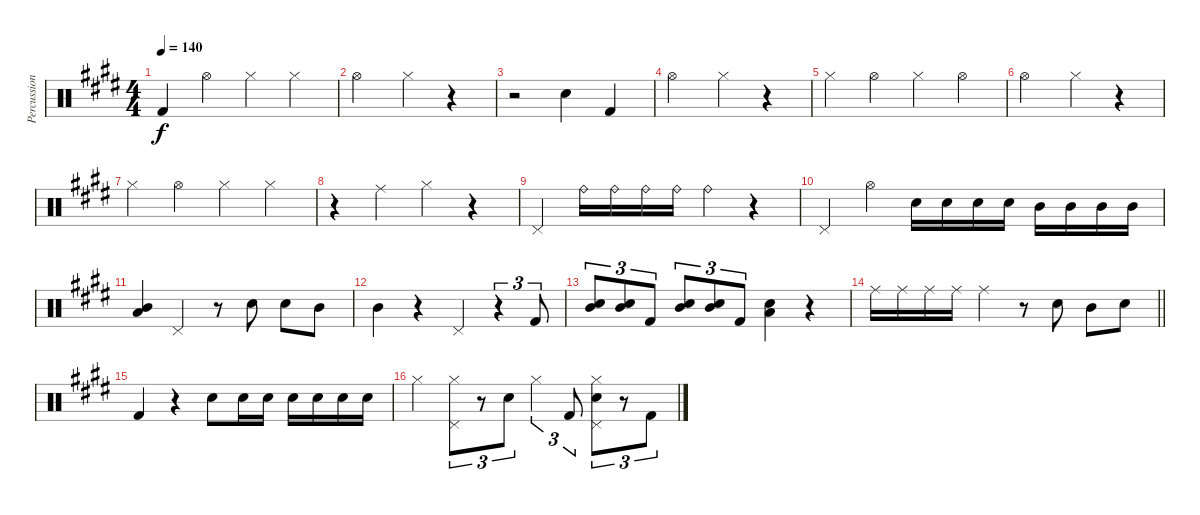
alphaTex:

\track ("Percussion" "Percussion") {instrument percussion}
\staff {score}
\articulation defaults
\ts (4 4)
\tempo 140
\clef neutral
\ks e "Kick (hit) 2".4{dy f} "Hi-Hat (open)".4 "Hi-Hat (closed)".4 "Hi-Hat (closed)".4
|
"Hi-Hat (open)".2 "Hi-Hat (closed)".4 r.4 |
r.2 "Snare (hit) 2".4 "Kick (hit) 2".4 |
"Hi-Hat (open)".2 "Hi-Hat (closed)".4 r.4 |
"Hi-Hat (closed)".4 "Hi-Hat (open)".4 "Hi-Hat (closed)".4 "Hi-Hat (open)".4 |
"Hi-Hat (open)".2 "Hi-Hat (closed)".4 r.4 |
"Hi-Hat (closed)".4 "Hi-Hat (open)".4 "Hi-Hat (closed)".4 "Hi-Hat (closed)".4 |
r.4 "Ride (middle)".4 "Hi-Hat (closed)".4 r.4 |
"Pedal Hi-Hat (hit)".4 "Ride (bell)".16 "Ride (bell)".16 "Ride (bell)".16 "Ride (bell)".16 "Ride (bell)".4 r.4 |
"Pedal Hi-Hat (hit)".4 "Hi-Hat (open)".4 "Snare (hit) 2".16 "Snare (hit) 2".16 "Snare (hit) 2".16 "Snare (hit) 2".16 "Mid Tom (hit)".16 "Mid Tom (hit)".16 "Mid Tom (hit)".16 "Mid Tom (hit)".16 |
("Mid Tom (hit)" "Low Tom (hit)").4 "Pedal Hi-Hat (hit)".4 r.8 "Snare (hit) 2".8 "Snare (hit) 2".8 "Mid Tom (hit)".8 |
"Mid Tom (hit)".4 r.4 "Pedal Hi-Hat (hit)".4 r.4{tu (3 2)} "Kick (hit) 2".8{tu (3 2)} |
("Mid Tom (hit)" "Snare (hit) 2").8{tu (3 2)} ("Mid Tom (hit)" "Snare (hit) 2").8{tu (3 2)} "Kick (hit) 2".8{tu (3 2)} ("Mid Tom (hit)" "Snare (hit) 2").8{tu (3 2)} ("Mid Tom (hit)" "Snare (hit) 2").8{tu (3 2)} "Kick (hit) 2".8{tu (3 2)} ("Snare (hit) 2" "Low Floor Tom (hit)").4 r.4 |
\barLineRight lightlight "Ride (middle)".16 "Ride (middle)".16 "Ride (middle)".16 "Ride (middle)".16 "Ride (middle)".4
r.8 "Snare (hit) 2".8 "Mid Tom (hit)".8 "Snare (hit) 2".8 |
"Kick (hit) 2".4 r.4 "Snare (hit) 2".8 "Snare (hit) 2".16 "Snare (hit) 2".16 "Snare (hit) 2".16 "Snare (hit) 2".16 "Snare (hit) 2".16 "Snare (hit) 2".16 |
"Hi-Hat (closed)".4 ("Hi-Hat (closed)" "Pedal Hi-Hat (hit)").8{tu (3 2)} r.8{tu (3 2)} "Snare (hit) 2".8{tu (3 2)} "Hi-Hat (closed)".4{tu (3 2)} "Kick (hit) 2".8{tu (3 2)} ("Hi-Hat (closed)" "Snare (hit) 2" "Pedal Hi-Hat (hit)").8{tu (3 2)} r.8{tu (3 2)} "Kick (hit) 2".8{tu (3 2)}
